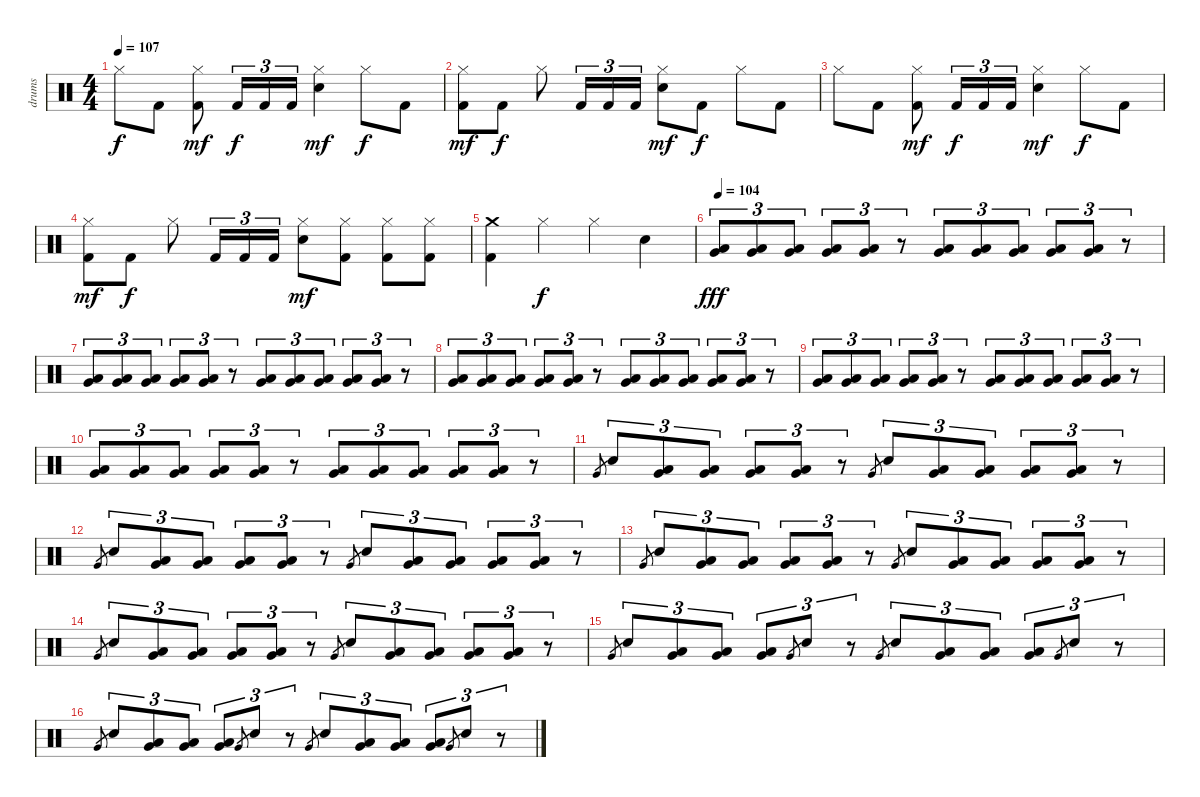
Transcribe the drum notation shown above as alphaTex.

\track ("drums" "drums") {instrument percussion}
\staff {score}
\articulation defaults
\ts (4 4)
\tempo 107
\clef neutral
\ks c "Hi-Hat (closed)".8{dy f} "Kick (hit) 2".8
("Hi-Hat (closed)" "Kick (hit) 2").8{dy mf} "Kick (hit) 2".16{tu (3 2) dy f} "Kick (hit) 2".16{tu (3 2)} "Kick (hit) 2".16{tu (3 2)} ("Hi-Hat (closed)" "Snare (hit) 2").4{dy mf} "Hi-Hat (closed)".8{dy f} "Kick (hit) 2".8 |
("Hi-Hat (closed)" "Kick (hit) 2").8{dy mf} "Kick (hit) 2".8{dy f} "Hi-Hat (closed)".8 "Kick (hit) 2".16{tu (3 2)} "Kick (hit) 2".16{tu (3 2)} "Kick (hit) 2".16{tu (3 2)} ("Hi-Hat (closed)" "Snare (hit) 2").8{dy mf} "Kick (hit) 2".8{dy f} "Hi-Hat (closed)".8 "Kick (hit) 2".8 |
"Hi-Hat (closed)".8 "Kick (hit) 2".8 ("Hi-Hat (closed)" "Kick (hit) 2").8{dy mf} "Kick (hit) 2".16{tu (3 2) dy f} "Kick (hit) 2".16{tu (3 2)} "Kick (hit) 2".16{tu (3 2)} ("Hi-Hat (closed)" "Snare (hit) 2").4{dy mf} "Hi-Hat (closed)".8{dy f} "Kick (hit) 2".8 |
("Hi-Hat (closed)" "Kick (hit) 2").8{dy mf} "Kick (hit) 2".8{dy f} "Hi-Hat (closed)".8 "Kick (hit) 2".16{tu (3 2)} "Kick (hit) 2".16{tu (3 2)} "Kick (hit) 2".16{tu (3 2)} ("Hi-Hat (closed)" "Snare (hit) 2").8{dy mf} ("Hi-Hat (closed)" "Kick (hit) 2").8 ("Hi-Hat (closed)" "Kick (hit) 2").8 ("Hi-Hat (closed)" "Kick (hit) 2").8 |
("Crash medium (hit)" "Kick (hit) 2").4 "Hi-Hat (closed)".4{dy f} "Hi-Hat (closed)".4 "Snare (hit) 2".4 |
\tempo 104
("Low Tom (hit)" "Very Low Tom (hit)").8{tu (3 2) dy fff} ("Low Tom (hit)" "Very Low Tom (hit)").8{tu (3 2)} ("Low Tom (hit)" "Very Low Tom (hit)").8{tu (3 2)} ("Low Tom (hit)" "Very Low Tom (hit)").8{tu (3 2)} ("Low Tom (hit)" "Very Low Tom (hit)").8{tu (3 2)} r.8{tu (3 2)} ("Low Tom (hit)" "Very Low Tom (hit)").8{tu (3 2)} ("Low Tom (hit)" "Very Low Tom (hit)").8{tu (3 2)} ("Low Tom (hit)" "Very Low Tom (hit)").8{tu (3 2)} ("Low Tom (hit)" "Very Low Tom (hit)").8{tu (3 2)} ("Low Tom (hit)" "Very Low Tom (hit)").8{tu (3 2)} r.8{tu (3 2)} |
("Low Tom (hit)" "Very Low Tom (hit)").8{tu (3 2)} ("Low Tom (hit)" "Very Low Tom (hit)").8{tu (3 2)} ("Low Tom (hit)" "Very Low Tom (hit)").8{tu (3 2)} ("Low Tom (hit)" "Very Low Tom (hit)").8{tu (3 2)} ("Low Tom (hit)" "Very Low Tom (hit)").8{tu (3 2)} r.8{tu (3 2)} ("Low Tom (hit)" "Very Low Tom (hit)").8{tu (3 2)} ("Low Tom (hit)" "Very Low Tom (hit)").8{tu (3 2)} ("Low Tom (hit)" "Very Low Tom (hit)").8{tu (3 2)} ("Low Tom (hit)" "Very Low Tom (hit)").8{tu (3 2)} ("Low Tom (hit)" "Very Low Tom (hit)").8{tu (3 2)} r.8{tu (3 2)} |
("Low Tom (hit)" "Very Low Tom (hit)").8{tu (3 2)} ("Low Tom (hit)" "Very Low Tom (hit)").8{tu (3 2)} ("Low Tom (hit)" "Very Low Tom (hit)").8{tu (3 2)} ("Low Tom (hit)" "Very Low Tom (hit)").8{tu (3 2)} ("Low Tom (hit)" "Very Low Tom (hit)").8{tu (3 2)} r.8{tu (3 2)} ("Low Tom (hit)" "Very Low Tom (hit)").8{tu (3 2)} ("Low Tom (hit)" "Very Low Tom (hit)").8{tu (3 2)} ("Low Tom (hit)" "Very Low Tom (hit)").8{tu (3 2)} ("Low Tom (hit)" "Very Low Tom (hit)").8{tu (3 2)} ("Low Tom (hit)" "Very Low Tom (hit)").8{tu (3 2)} r.8{tu (3 2)} |
("Low Tom (hit)" "Very Low Tom (hit)").8{tu (3 2)} ("Low Tom (hit)" "Very Low Tom (hit)").8{tu (3 2)} ("Low Tom (hit)" "Very Low Tom (hit)").8{tu (3 2)} ("Low Tom (hit)" "Very Low Tom (hit)").8{tu (3 2)} ("Low Tom (hit)" "Very Low Tom (hit)").8{tu (3 2)} r.8{tu (3 2)} ("Low Tom (hit)" "Very Low Tom (hit)").8{tu (3 2)} ("Low Tom (hit)" "Very Low Tom (hit)").8{tu (3 2)} ("Low Tom (hit)" "Very Low Tom (hit)").8{tu (3 2)} ("Low Tom (hit)" "Very Low Tom (hit)").8{tu (3 2)} ("Low Tom (hit)" "Very Low Tom (hit)").8{tu (3 2)} r.8{tu (3 2)} |
("Low Tom (hit)" "Very Low Tom (hit)").8{tu (3 2)} ("Low Tom (hit)" "Very Low Tom (hit)").8{tu (3 2)} ("Low Tom (hit)" "Very Low Tom (hit)").8{tu (3 2)} ("Low Tom (hit)" "Very Low Tom (hit)").8{tu (3 2)} ("Low Tom (hit)" "Very Low Tom (hit)").8{tu (3 2)} r.8{tu (3 2)} ("Low Tom (hit)" "Very Low Tom (hit)").8{tu (3 2)} ("Low Tom (hit)" "Very Low Tom (hit)").8{tu (3 2)} ("Low Tom (hit)" "Very Low Tom (hit)").8{tu (3 2)} ("Low Tom (hit)" "Very Low Tom (hit)").8{tu (3 2)} ("Low Tom (hit)" "Very Low Tom (hit)").8{tu (3 2)} r.8{tu (3 2)} |
"Very Low Tom (hit)".8{gr} "Snare (hit) 2".8{tu (3 2)} ("Low Tom (hit)" "Very Low Tom (hit)").8{tu (3 2)} ("Low Tom (hit)" "Very Low Tom (hit)").8{tu (3 2)} ("Low Tom (hit)" "Very Low Tom (hit)").8{tu (3 2)} ("Low Tom (hit)" "Very Low Tom (hit)").8{tu (3 2)} r.8{tu (3 2)} "Very Low Tom (hit)".8{gr} "Snare (hit) 2".8{tu (3 2)} ("Low Tom (hit)" "Very Low Tom (hit)").8{tu (3 2)} ("Low Tom (hit)" "Very Low Tom (hit)").8{tu (3 2)} ("Low Tom (hit)" "Very Low Tom (hit)").8{tu (3 2)} ("Low Tom (hit)" "Very Low Tom (hit)").8{tu (3 2)} r.8{tu (3 2)} |
"Very Low Tom (hit)".8{gr} "Snare (hit) 2".8{tu (3 2)} ("Low Tom (hit)" "Very Low Tom (hit)").8{tu (3 2)} ("Low Tom (hit)" "Very Low Tom (hit)").8{tu (3 2)} ("Low Tom (hit)" "Very Low Tom (hit)").8{tu (3 2)} ("Low Tom (hit)" "Very Low Tom (hit)").8{tu (3 2)} r.8{tu (3 2)} "Very Low Tom (hit)".8{gr} "Snare (hit) 2".8{tu (3 2)} ("Low Tom (hit)" "Very Low Tom (hit)").8{tu (3 2)} ("Low Tom (hit)" "Very Low Tom (hit)").8{tu (3 2)} ("Low Tom (hit)" "Very Low Tom (hit)").8{tu (3 2)} ("Low Tom (hit)" "Very Low Tom (hit)").8{tu (3 2)} r.8{tu (3 2)} |
"Very Low Tom (hit)".8{gr} "Snare (hit) 2".8{tu (3 2)} ("Low Tom (hit)" "Very Low Tom (hit)").8{tu (3 2)} ("Low Tom (hit)" "Very Low Tom (hit)").8{tu (3 2)} ("Low Tom (hit)" "Very Low Tom (hit)").8{tu (3 2)} ("Low Tom (hit)" "Very Low Tom (hit)").8{tu (3 2)} r.8{tu (3 2)} "Very Low Tom (hit)".8{gr} "Snare (hit) 2".8{tu (3 2)} ("Low Tom (hit)" "Very Low Tom (hit)").8{tu (3 2)} ("Low Tom (hit)" "Very Low Tom (hit)").8{tu (3 2)} ("Low Tom (hit)" "Very Low Tom (hit)").8{tu (3 2)} ("Low Tom (hit)" "Very Low Tom (hit)").8{tu (3 2)} r.8{tu (3 2)} |
"Very Low Tom (hit)".8{gr} "Snare (hit) 2".8{tu (3 2)} ("Low Tom (hit)" "Very Low Tom (hit)").8{tu (3 2)} ("Low Tom (hit)" "Very Low Tom (hit)").8{tu (3 2)} ("Low Tom (hit)" "Very Low Tom (hit)").8{tu (3 2)} ("Low Tom (hit)" "Very Low Tom (hit)").8{tu (3 2)} r.8{tu (3 2)} "Very Low Tom (hit)".8{gr} "Snare (hit) 2".8{tu (3 2)} ("Low Tom (hit)" "Very Low Tom (hit)").8{tu (3 2)} ("Low Tom (hit)" "Very Low Tom (hit)").8{tu (3 2)} ("Low Tom (hit)" "Very Low Tom (hit)").8{tu (3 2)} ("Low Tom (hit)" "Very Low Tom (hit)").8{tu (3 2)} r.8{tu (3 2)} |
"Very Low Tom (hit)".8{gr} "Snare (hit) 2".8{tu (3 2)} ("Low Tom (hit)" "Very Low Tom (hit)").8{tu (3 2)} ("Low Tom (hit)" "Very Low Tom (hit)").8{tu (3 2)} ("Low Tom (hit)" "Very Low Tom (hit)").8{tu (3 2)} "Very Low Tom (hit)".8{gr} "Snare (hit) 2".8{tu (3 2)} r.8{tu (3 2)} "Very Low Tom (hit)".8{gr} "Snare (hit) 2".8{tu (3 2)} ("Low Tom (hit)" "Very Low Tom (hit)").8{tu (3 2)} ("Low Tom (hit)" "Very Low Tom (hit)").8{tu (3 2)} ("Low Tom (hit)" "Very Low Tom (hit)").8{tu (3 2)} "Very Low Tom (hit)".8{gr} "Snare (hit) 2".8{tu (3 2)} r.8{tu (3 2)} |
"Very Low Tom (hit)".8{gr} "Snare (hit) 2".8{tu (3 2)} ("Low Tom (hit)" "Very Low Tom (hit)").8{tu (3 2)} ("Low Tom (hit)" "Very Low Tom (hit)").8{tu (3 2)} ("Low Tom (hit)" "Very Low Tom (hit)").8{tu (3 2)} "Very Low Tom (hit)".8{gr} "Snare (hit) 2".8{tu (3 2)} r.8{tu (3 2)} "Very Low Tom (hit)".8{gr} "Snare (hit) 2".8{tu (3 2)} ("Low Tom (hit)" "Very Low Tom (hit)").8{tu (3 2)} ("Low Tom (hit)" "Very Low Tom (hit)").8{tu (3 2)} ("Low Tom (hit)" "Very Low Tom (hit)").8{tu (3 2)} "Very Low Tom (hit)".8{gr} "Snare (hit) 2".8{tu (3 2)} r.8{tu (3 2)}
